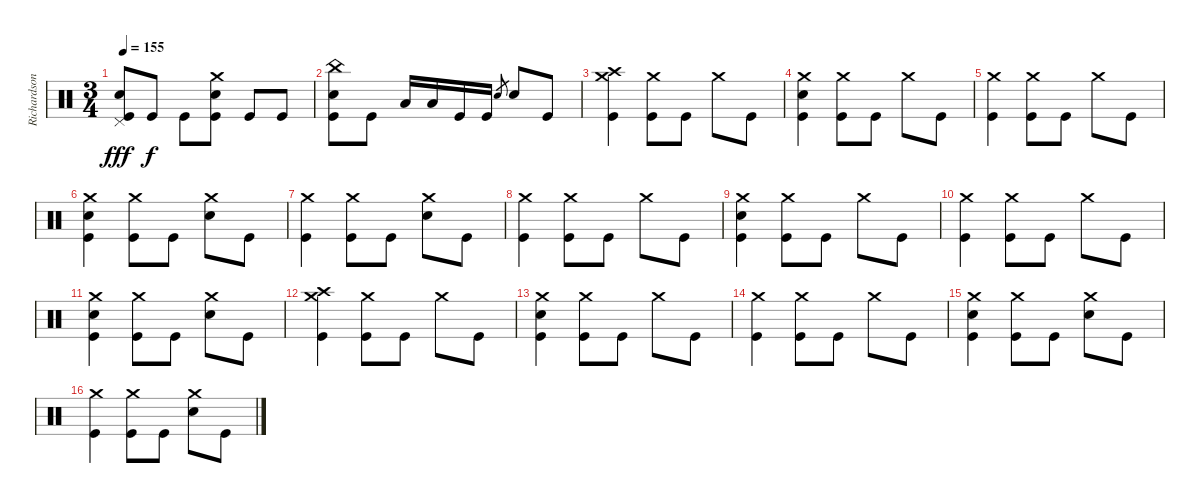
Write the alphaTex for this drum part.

\track ("Richardson" "Richardson") {instrument percussion}
\staff {score}
\articulation defaults
\ts (3 4)
\tempo 155
\clef neutral
\ks c
("Pedal Hi-Hat (hit)" "Electric Snare (hit)" "Kick (hit)").8{dy fff} "Kick (hit)".8{dy f} "Kick (hit)".8 ("Crash medium (hit)" "Electric Snare (hit)" "Kick (hit)").8 "Kick (hit)".8 "Kick (hit)".8 |
("China (hit)" "Electric Snare (hit)" "Kick (hit)").8 "Kick (hit)".8 "Low Tom (hit)".16 "Low Tom (hit)".16 "Kick (hit)".16 "Kick (hit)".16 "Electric Snare (hit)".8{gr} "Electric Snare (hit)".8 "Kick (hit)".8 |
("Crash medium (hit)" "Crash high (hit)" "Kick (hit)").4 ("Crash medium (hit)" "Kick (hit)").8 "Kick (hit)".8 "Crash medium (hit)".8 "Kick (hit)".8 |
("Crash medium (hit)" "Electric Snare (hit)" "Kick (hit)").4 ("Crash medium (hit)" "Kick (hit)").8 "Kick (hit)".8 "Crash medium (hit)".8 "Kick (hit)".8 |
("Crash medium (hit)" "Kick (hit)").4 ("Crash medium (hit)" "Kick (hit)").8 "Kick (hit)".8 "Crash medium (hit)".8 "Kick (hit)".8 |
("Crash medium (hit)" "Electric Snare (hit)" "Kick (hit)").4 ("Crash medium (hit)" "Kick (hit)").8 "Kick (hit)".8 ("Crash medium (hit)" "Electric Snare (hit)").8 "Kick (hit)".8 |
("Crash medium (hit)" "Kick (hit)").4 ("Crash medium (hit)" "Kick (hit)").8 "Kick (hit)".8 ("Crash medium (hit)" "Electric Snare (hit)").8 "Kick (hit)".8 |
("Crash medium (hit)" "Kick (hit)").4 ("Crash medium (hit)" "Kick (hit)").8 "Kick (hit)".8 "Crash medium (hit)".8 "Kick (hit)".8 |
("Crash medium (hit)" "Electric Snare (hit)" "Kick (hit)").4 ("Crash medium (hit)" "Kick (hit)").8 "Kick (hit)".8 "Crash medium (hit)".8 "Kick (hit)".8 |
("Crash medium (hit)" "Kick (hit)").4 ("Crash medium (hit)" "Kick (hit)").8 "Kick (hit)".8 "Crash medium (hit)".8 "Kick (hit)".8 |
("Crash medium (hit)" "Electric Snare (hit)" "Kick (hit)").4 ("Crash medium (hit)" "Kick (hit)").8 "Kick (hit)".8 ("Crash medium (hit)" "Electric Snare (hit)").8 "Kick (hit)".8 |
("Crash medium (hit)" "Crash high (hit)" "Kick (hit)").4 ("Crash medium (hit)" "Kick (hit)").8 "Kick (hit)".8 "Crash medium (hit)".8 "Kick (hit)".8 |
("Crash medium (hit)" "Electric Snare (hit)" "Kick (hit)").4 ("Crash medium (hit)" "Kick (hit)").8 "Kick (hit)".8 "Crash medium (hit)".8 "Kick (hit)".8 |
("Crash medium (hit)" "Kick (hit)").4 ("Crash medium (hit)" "Kick (hit)").8 "Kick (hit)".8 "Crash medium (hit)".8 "Kick (hit)".8 |
("Crash medium (hit)" "Electric Snare (hit)" "Kick (hit)").4 ("Crash medium (hit)" "Kick (hit)").8 "Kick (hit)".8 ("Crash medium (hit)" "Electric Snare (hit)").8 "Kick (hit)".8 |
("Crash medium (hit)" "Kick (hit)").4 ("Crash medium (hit)" "Kick (hit)").8 "Kick (hit)".8 ("Crash medium (hit)" "Electric Snare (hit)").8 "Kick (hit)".8
